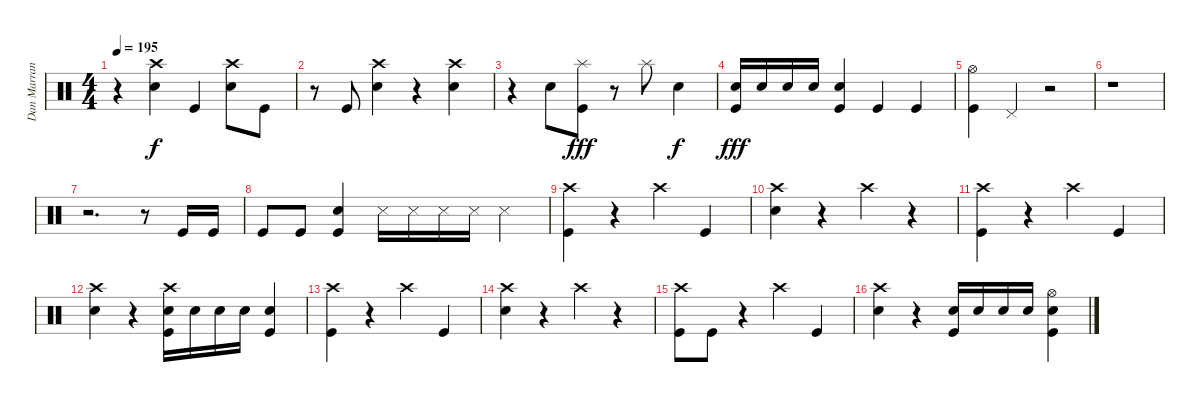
\track ("Dan Marranca" "Dan Marran") {instrument percussion}
\staff {score}
\articulation defaults
\ts (4 4)
\tempo 195
\clef neutral
\ks c
r.4{dy f} ("Crash high (hit)" "Electric Snare (hit)").4 "Kick (hit)".4 ("Crash high (hit)" "Electric Snare (hit)").8 "Kick (hit)".8 |
r.8 "Kick (hit)".8 ("Crash high (hit)" "Electric Snare (hit)").4 r.4 ("Crash high (hit)" "Electric Snare (hit)").4 |
r.4 "Electric Snare (hit)".8 ("Splash (hit)" "Kick (hit)").8{dy fff} r.8 "Splash (hit)".8 "Electric Snare (hit)".4{dy f} |
("Electric Snare (hit)" "Kick (hit)").16{dy fff} "Electric Snare (hit)".16 "Electric Snare (hit)".16 "Electric Snare (hit)".16 ("Electric Snare (hit)" "Kick (hit)").4 "Kick (hit)".4 "Kick (hit)".4 |
("Hi-Hat (open)" "Kick (hit)").4 "Pedal Hi-Hat (hit)".4 r.2 |
r.1 |
r.2{d} r.8 "Kick (hit)".16 "Kick (hit)".16 |
"Kick (hit)".8 "Kick (hit)".8 ("Electric Snare (hit)" "Kick (hit)").4 "Snare (side stick) 3".16 "Snare (side stick) 3".16 "Snare (side stick) 3".16 "Snare (side stick) 3".16 "Snare (side stick) 3".4 |
("Crash high (hit)" "Kick (hit)").4 r.4 "Crash high (hit)".4 "Kick (hit)".4 |
("Crash high (hit)" "Electric Snare (hit)").4 r.4 "Crash high (hit)".4 r.4 |
("Crash high (hit)" "Kick (hit)").4 r.4 "Crash high (hit)".4 "Kick (hit)".4 |
("Crash high (hit)" "Electric Snare (hit)").4 r.4 ("Crash high (hit)" "Electric Snare (hit)" "Kick (hit)").16 "Electric Snare (hit)".16 "Electric Snare (hit)".16 "Electric Snare (hit)".16 ("Electric Snare (hit)" "Kick (hit)").4 |
("Crash high (hit)" "Kick (hit)").4 r.4 "Crash high (hit)".4 "Kick (hit)".4 |
("Crash high (hit)" "Electric Snare (hit)").4 r.4 "Crash high (hit)".4 r.4 |
("Crash high (hit)" "Kick (hit)").8 "Kick (hit)".8 r.4 "Crash high (hit)".4 "Kick (hit)".4 |
("Crash high (hit)" "Electric Snare (hit)").4 r.4 ("Electric Snare (hit)" "Kick (hit)").16 "Electric Snare (hit)".16 "Electric Snare (hit)".16 "Electric Snare (hit)".16 ("Hi-Hat (open)" "Electric Snare (hit)" "Kick (hit)").4
